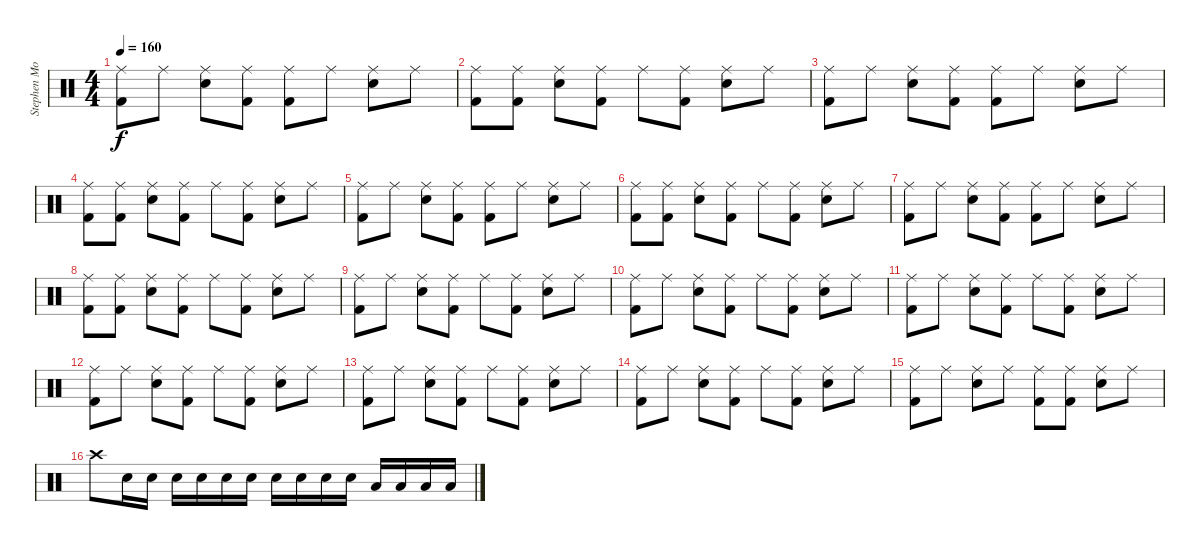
\track ("Stephen Morris - Drums" "Stephen Mo") {instrument percussion}
\staff {score}
\articulation defaults
\ts (4 4)
\tempo 160
\clef neutral
\ks c
("Ride (middle)" "Kick (hit) 2").8{dy f} "Ride (middle)".8 ("Ride (middle)" "Snare (hit) 2").8 ("Ride (middle)" "Kick (hit) 2").8 ("Ride (middle)" "Kick (hit) 2").8 "Ride (middle)".8 ("Ride (middle)" "Snare (hit) 2").8 "Ride (middle)".8 |
("Ride (middle)" "Kick (hit) 2").8 ("Ride (middle)" "Kick (hit) 2").8 ("Ride (middle)" "Snare (hit) 2").8 ("Ride (middle)" "Kick (hit) 2").8 "Ride (middle)".8 ("Ride (middle)" "Kick (hit) 2").8 ("Ride (middle)" "Snare (hit) 2").8 "Ride (middle)".8 |
("Ride (middle)" "Kick (hit) 2").8 "Ride (middle)".8 ("Ride (middle)" "Snare (hit) 2").8 ("Ride (middle)" "Kick (hit) 2").8 ("Ride (middle)" "Kick (hit) 2").8 "Ride (middle)".8 ("Ride (middle)" "Snare (hit) 2").8 "Ride (middle)".8 |
("Ride (middle)" "Kick (hit) 2").8 ("Ride (middle)" "Kick (hit) 2").8 ("Ride (middle)" "Snare (hit) 2").8 ("Ride (middle)" "Kick (hit) 2").8 "Ride (middle)".8 ("Ride (middle)" "Kick (hit) 2").8 ("Ride (middle)" "Snare (hit) 2").8 "Ride (middle)".8 |
("Ride (middle)" "Kick (hit) 2").8 "Ride (middle)".8 ("Ride (middle)" "Snare (hit) 2").8 ("Ride (middle)" "Kick (hit) 2").8 ("Ride (middle)" "Kick (hit) 2").8 "Ride (middle)".8 ("Ride (middle)" "Snare (hit) 2").8 "Ride (middle)".8 |
("Ride (middle)" "Kick (hit) 2").8 ("Ride (middle)" "Kick (hit) 2").8 ("Ride (middle)" "Snare (hit) 2").8 ("Ride (middle)" "Kick (hit) 2").8 "Ride (middle)".8 ("Ride (middle)" "Kick (hit) 2").8 ("Ride (middle)" "Snare (hit) 2").8 "Ride (middle)".8 |
("Ride (middle)" "Kick (hit) 2").8 "Ride (middle)".8 ("Ride (middle)" "Snare (hit) 2").8 ("Ride (middle)" "Kick (hit) 2").8 ("Ride (middle)" "Kick (hit) 2").8 "Ride (middle)".8 ("Ride (middle)" "Snare (hit) 2").8 "Ride (middle)".8 |
("Ride (middle)" "Kick (hit) 2").8 ("Ride (middle)" "Kick (hit) 2").8 ("Ride (middle)" "Snare (hit) 2").8 ("Ride (middle)" "Kick (hit) 2").8 "Ride (middle)".8 ("Ride (middle)" "Kick (hit) 2").8 ("Ride (middle)" "Snare (hit) 2").8 "Ride (middle)".8 |
("Ride (middle)" "Kick (hit) 2").8 "Ride (middle)".8 ("Ride (middle)" "Snare (hit) 2").8 ("Ride (middle)" "Kick (hit) 2").8 "Ride (middle)".8 ("Ride (middle)" "Kick (hit) 2").8 ("Ride (middle)" "Snare (hit) 2").8 "Ride (middle)".8 |
("Ride (middle)" "Kick (hit) 2").8 "Ride (middle)".8 ("Ride (middle)" "Snare (hit) 2").8 ("Ride (middle)" "Kick (hit) 2").8 "Ride (middle)".8 ("Ride (middle)" "Kick (hit) 2").8 ("Ride (middle)" "Snare (hit) 2").8 "Ride (middle)".8 |
("Ride (middle)" "Kick (hit) 2").8 "Ride (middle)".8 ("Ride (middle)" "Snare (hit) 2").8 ("Ride (middle)" "Kick (hit) 2").8 "Ride (middle)".8 ("Ride (middle)" "Kick (hit) 2").8 ("Ride (middle)" "Snare (hit) 2").8 "Ride (middle)".8 |
("Ride (middle)" "Kick (hit) 2").8 "Ride (middle)".8 ("Ride (middle)" "Snare (hit) 2").8 ("Ride (middle)" "Kick (hit) 2").8 "Ride (middle)".8 ("Ride (middle)" "Kick (hit) 2").8 ("Ride (middle)" "Snare (hit) 2").8 "Ride (middle)".8 |
("Ride (middle)" "Kick (hit) 2").8 "Ride (middle)".8 ("Ride (middle)" "Snare (hit) 2").8 ("Ride (middle)" "Kick (hit) 2").8 "Ride (middle)".8 ("Ride (middle)" "Kick (hit) 2").8 ("Ride (middle)" "Snare (hit) 2").8 "Ride (middle)".8 |
("Ride (middle)" "Kick (hit) 2").8 "Ride (middle)".8 ("Ride (middle)" "Snare (hit) 2").8 ("Ride (middle)" "Kick (hit) 2").8 "Ride (middle)".8 ("Ride (middle)" "Kick (hit) 2").8 ("Ride (middle)" "Snare (hit) 2").8 "Ride (middle)".8 |
("Ride (middle)" "Kick (hit) 2").8 "Ride (middle)".8 ("Ride (middle)" "Snare (hit) 2").8 "Ride (middle)".8 ("Ride (middle)" "Kick (hit) 2").8 ("Ride (middle)" "Kick (hit) 2").8 ("Ride (middle)" "Snare (hit) 2").8 "Ride (middle)".8 |
"Crash high (hit)".8 "Snare (hit) 2".16 "Snare (hit) 2".16 "Snare (hit) 2".16 "Snare (hit) 2".16 "Snare (hit) 2".16 "Snare (hit) 2".16 "Snare (hit) 2".16 "Snare (hit) 2".16 "Snare (hit) 2".16 "Snare (hit) 2".16 "Low Tom (hit)".16 "Low Floor Tom (hit)".16 "Low Floor Tom (hit)".16 "Low Floor Tom (hit)".16
